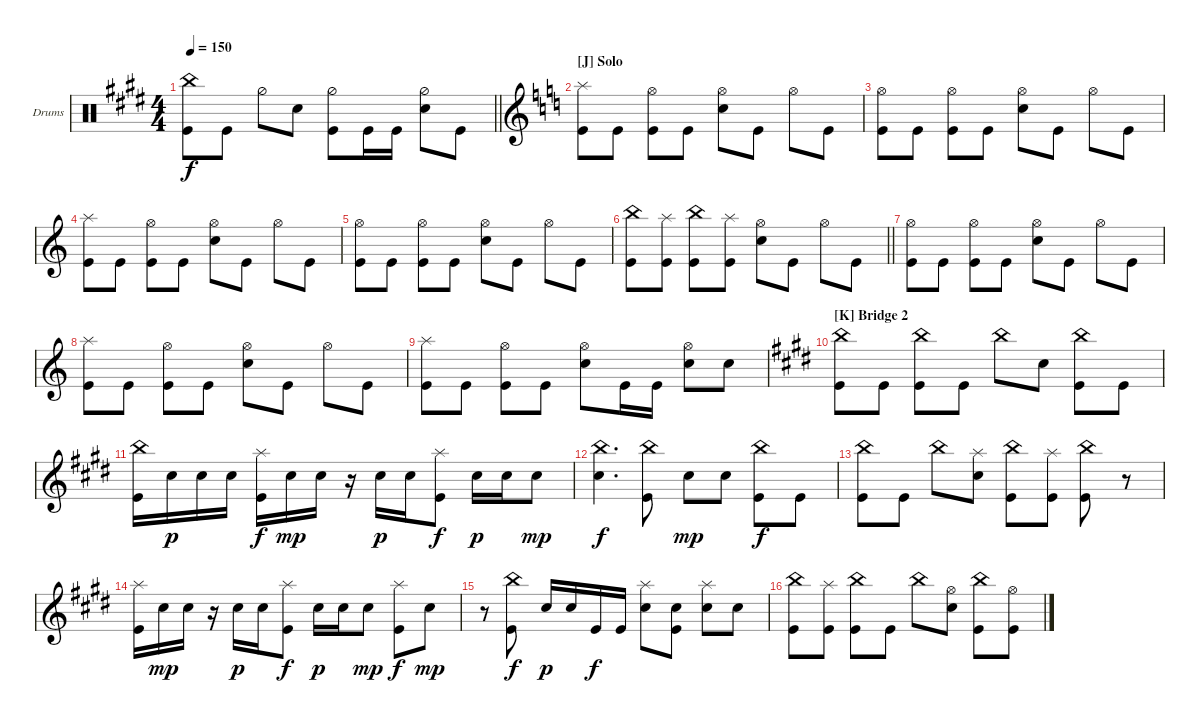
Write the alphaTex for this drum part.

\bracketExtendMode groupsimilarinstruments
\firstSystemTrackNameOrientation horizontal
\otherSystemsTrackNameOrientation horizontal
\track ("Drums" "Drums") {instrument percussion}
\staff {score}
\articulation defaults
\ts (4 4)
\tempo 150
\clef neutral
\scale
0.333333
\barLineRight lightlight
\ks e
("Kick (hit)" "China (hit)").8{dy f} "Kick (hit)".8 "Hi-Hat (half)".8 "Snare (hit) 2".8 ("Kick (hit)" "Hi-Hat (half)").8 "Kick (hit)".16 "Kick (hit)".16 ("Snare (hit) 2" "Hi-Hat (half)").8 "Kick (hit)".8 |
\section ("J" "Solo")
\clef g2
\scale
0.481818
\ks c
("Splash (hit)" "Kick (hit)").8 "Kick (hit)".8 ("Kick (hit)" "Hi-Hat (open)").8 "Kick (hit)".8 ("Snare (hit) 2" "Hi-Hat (open)").8 "Kick (hit)".8 "Hi-Hat (open)".8 "Kick (hit)".8 |
\scale
0.259091 ("Kick (hit)" "Hi-Hat (open)").8 "Kick (hit)".8 ("Kick (hit)" "Hi-Hat (open)").8 "Kick (hit)".8 ("Snare (hit) 2" "Hi-Hat (open)").8 "Kick (hit)".8 "Hi-Hat (open)".8 "Kick (hit)".8 |
\scale
0.259091 ("Splash (hit)" "Kick (hit)").8 "Kick (hit)".8 ("Kick (hit)" "Hi-Hat (open)").8 "Kick (hit)".8 ("Snare (hit) 2" "Hi-Hat (open)").8 "Kick (hit)".8 "Hi-Hat (open)".8 "Kick (hit)".8 |
\scale
0.333333 ("Kick (hit)" "Hi-Hat (open)").8 "Kick (hit)".8 ("Kick (hit)" "Hi-Hat (open)").8 "Kick (hit)".8 ("Snare (hit) 2" "Hi-Hat (open)").8 "Kick (hit)".8 "Hi-Hat (open)".8 "Kick (hit)".8 |
\scale
0.333333
\barLineRight lightlight
("Kick (hit)" "China (hit)").8 ("Kick (hit)" "Splash (hit)").8 ("Kick (hit)" "China (hit)").8 ("Kick (hit)" "Splash (hit)").8 ("Snare (hit) 2" "Hi-Hat (open)").8 "Kick (hit)".8 "Hi-Hat (open)".8 "Kick (hit)".8 |
\scale
0.333333 ("Kick (hit)" "Hi-Hat (open)").8 "Kick (hit)".8 ("Kick (hit)" "Hi-Hat (open)").8 "Kick (hit)".8 ("Snare (hit) 2" "Hi-Hat (open)").8 "Kick (hit)".8 "Hi-Hat (open)".8 "Kick (hit)".8 |
\scale
0.242553 ("Splash (hit)" "Kick (hit)").8 "Kick (hit)".8 ("Kick (hit)" "Hi-Hat (open)").8 "Kick (hit)".8 ("Snare (hit) 2" "Hi-Hat (open)").8 "Kick (hit)".8 "Hi-Hat (open)".8 "Kick (hit)".8 |
\scale
0.242553 ("Kick (hit)" "Splash (hit)").8 "Kick (hit)".8 ("Kick (hit)" "Hi-Hat (open)").8 "Kick (hit)".8 ("Snare (hit) 2" "Hi-Hat (open)").8 "Kick (hit)".16 "Kick (hit)".16 ("Snare (hit) 2" "Hi-Hat (open)").8 "Snare (hit) 2".8 |
\section ("K" "Bridge 2")
\scale
0.514894
\ks e
("Kick (hit)" "China (hit)").8 "Kick (hit)".8 ("Kick (hit)" "China (hit)").8 "Kick (hit)".8 "China (hit)".8 "Snare (hit) 2".8 ("Kick (hit)" "China (hit)").8 "Kick (hit)".8 |
\scale
0.333333 ("Kick (hit)" "China (hit)").16 "Snare (hit) 2".16{dy p} "Snare (hit) 2".16 "Snare (hit) 2".16 ("Kick (hit)" "Splash (hit)").16{dy f} "Snare (hit) 2".16{dy mp} "Snare (hit) 2".16 r.16 "Snare (hit) 2".16{dy p} "Snare (hit) 2".16 ("Kick (hit)" "Splash (hit)").8{dy f} "Snare (hit) 2".16{dy p} "Snare (hit) 2".16 "Snare (hit) 2".8{dy mp} |
\scale
0.333333 ("China (hit)" "Snare (hit) 2").4{d dy f} ("Kick (hit)" "China (hit)").8 "Snare (hit) 2".8{dy mp} "Snare (hit) 2".8 ("Kick (hit)" "China (hit)").8{dy f} "Kick (hit)".8 |
\scale
0.333333 ("Kick (hit)" "China (hit)").8 "Kick (hit)".8 "China (hit)".8 ("Snare (hit) 2" "Splash (hit)").8 ("Kick (hit)" "China (hit)").8 ("Kick (hit)" "Splash (hit)").8 ("Kick (hit)" "China (hit)").8 r.8 |
\scale
0.322034 ("Kick (hit)" "Splash (hit)").16 "Snare (hit) 2".16{dy mp} "Snare (hit) 2".16 r.16 "Snare (hit) 2".16{dy p} "Snare (hit) 2".16 ("Kick (hit)" "Splash (hit)").8{dy f} "Snare (hit) 2".16{dy p} "Snare (hit) 2".16 "Snare (hit) 2".8{dy mp} ("Kick (hit)" "Splash (hit)").8{dy f} "Snare (hit) 2".8{dy mp} |
\scale
0.355932 r.8 ("Kick (hit)" "China (hit)").8{dy f} "Snare (hit) 2".16{dy p} "Snare (hit) 2".16 "Kick (hit)".16{dy f} "Kick (hit)".16 ("Snare (hit) 2" "Splash (hit)").8 ("Snare (hit) 2" "Kick (hit)").8 ("Snare (hit) 2" "Splash (hit)").8 "Snare (hit) 2".8 |
("Kick (hit)" "China (hit)").8 ("Kick (hit)" "Splash (hit)").8 ("Kick (hit)" "China (hit)").8 "Kick (hit)".8 "China (hit)".8 ("Snare (hit) 2" "Hi-Hat (open)").8 ("Kick (hit)" "China (hit)").8 ("Kick (hit)" "Hi-Hat (open)").8
